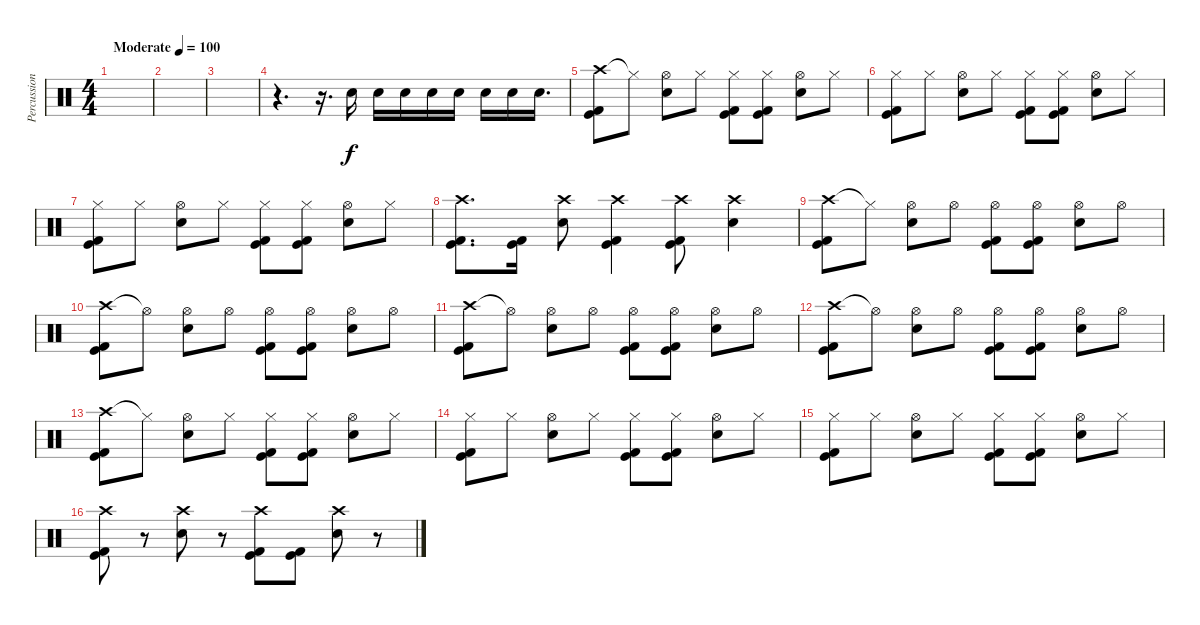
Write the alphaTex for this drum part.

\track ("Percussions" "Percussion") {instrument percussion}
\staff {score}
\articulation defaults
\ts (4 4)
\tempo (100 "Moderate")
\clef neutral
\ks c
|
|
|
r.4{d} r.16{d} "Snare (hit) 2".16 "Snare (hit) 2".16 "Snare (hit) 2".16 "Snare (hit) 2".16 "Snare (hit) 2".16 "Snare (hit) 2".16 "Snare (hit) 2".16 "Snare (hit) 2".16{d} |
("Crash high (hit)" "Kick (hit)" "Kick (hit) 2").8 "Hi-Hat (closed)"{t}.8 ("Hi-Hat (open)" "Snare (hit) 2").8 "Hi-Hat (closed)".8 ("Hi-Hat (closed)" "Kick (hit)" "Kick (hit) 2").8 ("Hi-Hat (closed)" "Kick (hit)" "Kick (hit) 2").8 ("Hi-Hat (open)" "Snare (hit) 2").8 "Hi-Hat (closed)".8 |
("Hi-Hat (closed)" "Kick (hit)" "Kick (hit) 2").8 "Hi-Hat (closed)".8 ("Hi-Hat (open)" "Snare (hit) 2").8 "Hi-Hat (closed)".8 ("Hi-Hat (closed)" "Kick (hit)" "Kick (hit) 2").8 ("Hi-Hat (closed)" "Kick (hit)" "Kick (hit) 2").8 ("Hi-Hat (open)" "Snare (hit) 2").8 "Hi-Hat (closed)".8 |
("Hi-Hat (closed)" "Kick (hit)" "Kick (hit) 2").8 "Hi-Hat (closed)".8 ("Hi-Hat (open)" "Snare (hit) 2").8 "Hi-Hat (closed)".8 ("Hi-Hat (closed)" "Kick (hit)" "Kick (hit) 2").8 ("Hi-Hat (closed)" "Kick (hit)" "Kick (hit) 2").8 ("Hi-Hat (open)" "Snare (hit) 2").8 "Hi-Hat (closed)".8 |
("Crash high (hit)" "Kick (hit)" "Kick (hit) 2").8{d} ("Kick (hit)" "Kick (hit) 2").16 ("Crash high (hit)" "Snare (hit) 2").8 ("Crash high (hit)" "Kick (hit)" "Kick (hit) 2").4 ("Crash high (hit)" "Kick (hit)" "Kick (hit) 2").8 ("Crash high (hit)" "Snare (hit) 2").4 |
("Crash high (hit)" "Kick (hit)" "Kick (hit) 2").8 "Hi-Hat (closed)"{t}.8 ("Hi-Hat (open)" "Snare (hit) 2").8 "Hi-Hat (open)".8 ("Hi-Hat (open)" "Kick (hit)" "Kick (hit) 2").8 ("Hi-Hat (open)" "Kick (hit)" "Kick (hit) 2").8 ("Hi-Hat (open)" "Snare (hit) 2").8 "Hi-Hat (open)".8 |
("Crash high (hit)" "Kick (hit)" "Kick (hit) 2").8 "Hi-Hat (open)"{t}.8 ("Hi-Hat (open)" "Snare (hit) 2").8 "Hi-Hat (open)".8 ("Hi-Hat (open)" "Kick (hit)" "Kick (hit) 2").8 ("Hi-Hat (open)" "Kick (hit)" "Kick (hit) 2").8 ("Hi-Hat (open)" "Snare (hit) 2").8 "Hi-Hat (open)".8 |
("Crash high (hit)" "Kick (hit)" "Kick (hit) 2").8 "Hi-Hat (open)"{t}.8 ("Hi-Hat (open)" "Snare (hit) 2").8 "Hi-Hat (open)".8 ("Hi-Hat (open)" "Kick (hit)" "Kick (hit) 2").8 ("Hi-Hat (open)" "Kick (hit)" "Kick (hit) 2").8 ("Hi-Hat (open)" "Snare (hit) 2").8 "Hi-Hat (open)".8 |
("Crash high (hit)" "Kick (hit)" "Kick (hit) 2").8 "Hi-Hat (open)"{t}.8 ("Hi-Hat (open)" "Snare (hit) 2").8 "Hi-Hat (open)".8 ("Hi-Hat (open)" "Kick (hit)" "Kick (hit) 2").8 ("Hi-Hat (open)" "Kick (hit)" "Kick (hit) 2").8 ("Hi-Hat (open)" "Snare (hit) 2").8 "Hi-Hat (open)".8 |
("Crash high (hit)" "Kick (hit)" "Kick (hit) 2").8 "Hi-Hat (closed)"{t}.8 ("Hi-Hat (open)" "Snare (hit) 2").8 "Hi-Hat (closed)".8 ("Hi-Hat (closed)" "Kick (hit)" "Kick (hit) 2").8 ("Hi-Hat (closed)" "Kick (hit)" "Kick (hit) 2").8 ("Hi-Hat (open)" "Snare (hit) 2").8 "Hi-Hat (closed)".8 |
("Hi-Hat (closed)" "Kick (hit)" "Kick (hit) 2").8 "Hi-Hat (closed)".8 ("Hi-Hat (open)" "Snare (hit) 2").8 "Hi-Hat (closed)".8 ("Hi-Hat (closed)" "Kick (hit)" "Kick (hit) 2").8 ("Hi-Hat (closed)" "Kick (hit)" "Kick (hit) 2").8 ("Hi-Hat (open)" "Snare (hit) 2").8 "Hi-Hat (closed)".8 |
("Hi-Hat (closed)" "Kick (hit)" "Kick (hit) 2").8 "Hi-Hat (closed)".8 ("Hi-Hat (open)" "Snare (hit) 2").8 "Hi-Hat (closed)".8 ("Hi-Hat (closed)" "Kick (hit)" "Kick (hit) 2").8 ("Hi-Hat (closed)" "Kick (hit)" "Kick (hit) 2").8 ("Hi-Hat (open)" "Snare (hit) 2").8 "Hi-Hat (closed)".8 |
("Crash high (hit)" "Kick (hit)" "Kick (hit) 2").8 r.8 ("Crash high (hit)" "Snare (hit) 2").8 r.8 ("Crash high (hit)" "Kick (hit)" "Kick (hit) 2").8 ("Kick (hit)" "Kick (hit) 2").8 ("Crash high (hit)" "Snare (hit) 2").8 r.8
